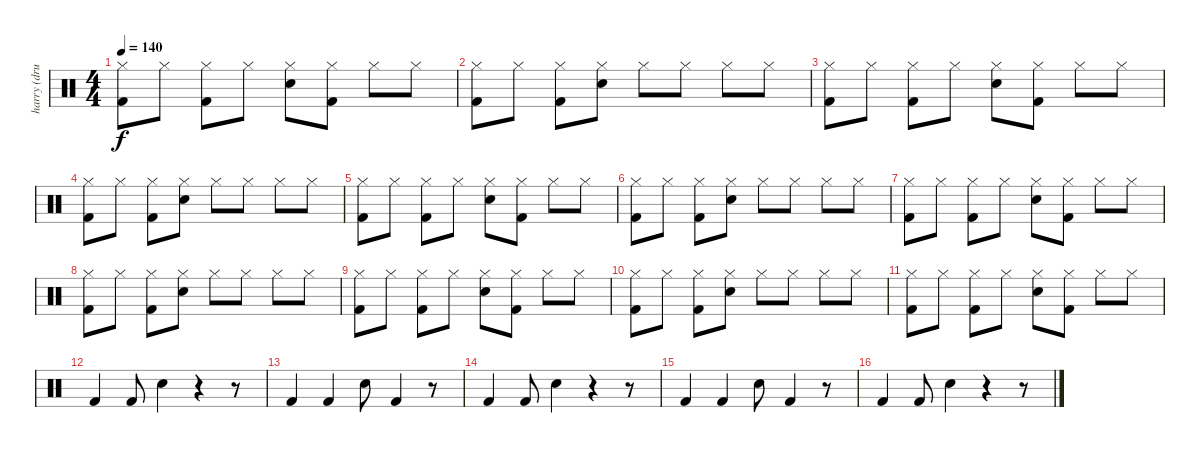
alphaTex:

\track ("harry (drum)" "harry (dru") {instrument percussion}
\staff {score}
\articulation defaults
\ts (4 4)
\tempo 140
\clef neutral
\ks c
("Hi-Hat (closed)" "Kick (hit) 2").8{dy f} "Hi-Hat (closed)".8 ("Hi-Hat (closed)" "Kick (hit) 2").8 "Hi-Hat (closed)".8 ("Hi-Hat (closed)" "Snare (hit) 2").8 ("Hi-Hat (closed)" "Kick (hit) 2").8 "Hi-Hat (closed)".8 "Hi-Hat (closed)".8 |
("Hi-Hat (closed)" "Kick (hit) 2").8 "Hi-Hat (closed)".8 ("Hi-Hat (closed)" "Kick (hit) 2").8 ("Hi-Hat (closed)" "Snare (hit) 2").8 "Hi-Hat (closed)".8 "Hi-Hat (closed)".8 "Hi-Hat (closed)".8 "Hi-Hat (closed)".8 |
("Hi-Hat (closed)" "Kick (hit) 2").8 "Hi-Hat (closed)".8 ("Hi-Hat (closed)" "Kick (hit) 2").8 "Hi-Hat (closed)".8 ("Hi-Hat (closed)" "Snare (hit) 2").8 ("Hi-Hat (closed)" "Kick (hit) 2").8 "Hi-Hat (closed)".8 "Hi-Hat (closed)".8 |
("Hi-Hat (closed)" "Kick (hit) 2").8 "Hi-Hat (closed)".8 ("Hi-Hat (closed)" "Kick (hit) 2").8 ("Hi-Hat (closed)" "Snare (hit) 2").8 "Hi-Hat (closed)".8 "Hi-Hat (closed)".8 "Hi-Hat (closed)".8 "Hi-Hat (closed)".8 |
("Hi-Hat (closed)" "Kick (hit) 2").8 "Hi-Hat (closed)".8 ("Hi-Hat (closed)" "Kick (hit) 2").8 "Hi-Hat (closed)".8 ("Hi-Hat (closed)" "Snare (hit) 2").8 ("Hi-Hat (closed)" "Kick (hit) 2").8 "Hi-Hat (closed)".8 "Hi-Hat (closed)".8 |
("Hi-Hat (closed)" "Kick (hit) 2").8 "Hi-Hat (closed)".8 ("Hi-Hat (closed)" "Kick (hit) 2").8 ("Hi-Hat (closed)" "Snare (hit) 2").8 "Hi-Hat (closed)".8 "Hi-Hat (closed)".8 "Hi-Hat (closed)".8 "Hi-Hat (closed)".8 |
("Hi-Hat (closed)" "Kick (hit) 2").8 "Hi-Hat (closed)".8 ("Hi-Hat (closed)" "Kick (hit) 2").8 "Hi-Hat (closed)".8 ("Hi-Hat (closed)" "Snare (hit) 2").8 ("Hi-Hat (closed)" "Kick (hit) 2").8 "Hi-Hat (closed)".8 "Hi-Hat (closed)".8 |
("Hi-Hat (closed)" "Kick (hit) 2").8 "Hi-Hat (closed)".8 ("Hi-Hat (closed)" "Kick (hit) 2").8 ("Hi-Hat (closed)" "Snare (hit) 2").8 "Hi-Hat (closed)".8 "Hi-Hat (closed)".8 "Hi-Hat (closed)".8 "Hi-Hat (closed)".8 |
("Hi-Hat (closed)" "Kick (hit) 2").8 "Hi-Hat (closed)".8 ("Hi-Hat (closed)" "Kick (hit) 2").8 "Hi-Hat (closed)".8 ("Hi-Hat (closed)" "Snare (hit) 2").8 ("Hi-Hat (closed)" "Kick (hit) 2").8 "Hi-Hat (closed)".8 "Hi-Hat (closed)".8 |
("Hi-Hat (closed)" "Kick (hit) 2").8 "Hi-Hat (closed)".8 ("Hi-Hat (closed)" "Kick (hit) 2").8 ("Hi-Hat (closed)" "Snare (hit) 2").8 "Hi-Hat (closed)".8 "Hi-Hat (closed)".8 "Hi-Hat (closed)".8 "Hi-Hat (closed)".8 |
("Hi-Hat (closed)" "Kick (hit) 2").8 "Hi-Hat (closed)".8 ("Hi-Hat (closed)" "Kick (hit) 2").8 "Hi-Hat (closed)".8 ("Hi-Hat (closed)" "Snare (hit) 2").8 ("Hi-Hat (closed)" "Kick (hit) 2").8 "Hi-Hat (closed)".8 "Hi-Hat (closed)".8 |
"Kick (hit) 2".4 "Kick (hit) 2".8 "Snare (hit) 2".4 r.4 r.8 |
"Kick (hit) 2".4 "Kick (hit) 2".4 "Snare (hit) 2".8 "Kick (hit) 2".4 r.8 |
"Kick (hit) 2".4 "Kick (hit) 2".8 "Snare (hit) 2".4 r.4 r.8 |
"Kick (hit) 2".4 "Kick (hit) 2".4 "Snare (hit) 2".8 "Kick (hit) 2".4 r.8 |
"Kick (hit) 2".4 "Kick (hit) 2".8 "Snare (hit) 2".4 r.4 r.8
